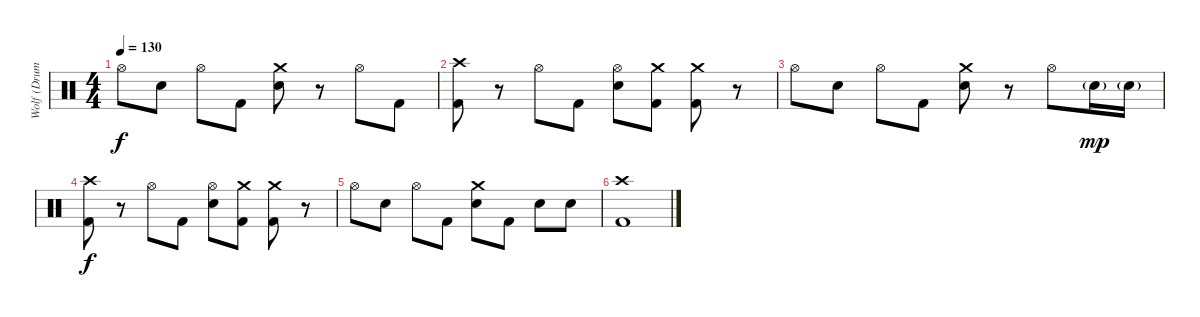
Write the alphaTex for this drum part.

\track ("Wolf (Drums)" "Wolf (Drum") {instrument percussion}
\staff {score}
\articulation defaults
\ts (4 4)
\tempo 130
\clef neutral
\ks c "Hi-Hat (open)".8{dy f beam merge} "Snare (hit) 2".8 "Hi-Hat (open)".8 "Kick (hit) 2".8
("Crash medium (hit)" "Snare (hit) 2").8 r.8 "Hi-Hat (open)".8 "Kick (hit) 2".8 |
("Crash high (hit)" "Kick (hit) 2").8 r.8 "Hi-Hat (open)".8 "Kick (hit) 2".8 ("Hi-Hat (open)" "Snare (hit) 2").8 ("Crash medium (hit)" "Kick (hit) 2").8 ("Crash medium (hit)" "Kick (hit) 2").8 r.8 |
"Hi-Hat (open)".8{beam merge} "Snare (hit) 2".8 "Hi-Hat (open)".8 "Kick (hit) 2".8 ("Crash medium (hit)" "Snare (hit) 2").8 r.8 "Hi-Hat (open)".8 "Snare (hit) 2"{g}.16{dy mp} "Snare (hit) 2"{g}.16 |
("Crash high (hit)" "Kick (hit) 2").8{dy f} r.8 "Hi-Hat (open)".8 "Kick (hit) 2".8 ("Hi-Hat (open)" "Snare (hit) 2").8 ("Crash medium (hit)" "Kick (hit) 2").8 ("Crash medium (hit)" "Kick (hit) 2").8 r.8 |
"Hi-Hat (open)".8{beam merge} "Snare (hit) 2".8 "Hi-Hat (open)".8 "Kick (hit) 2".8 ("Crash medium (hit)" "Snare (hit) 2").8 "Kick (hit) 2".8 "Snare (hit) 2".8 "Snare (hit) 2".8 |
("Crash high (hit)" "Kick (hit) 2").1
